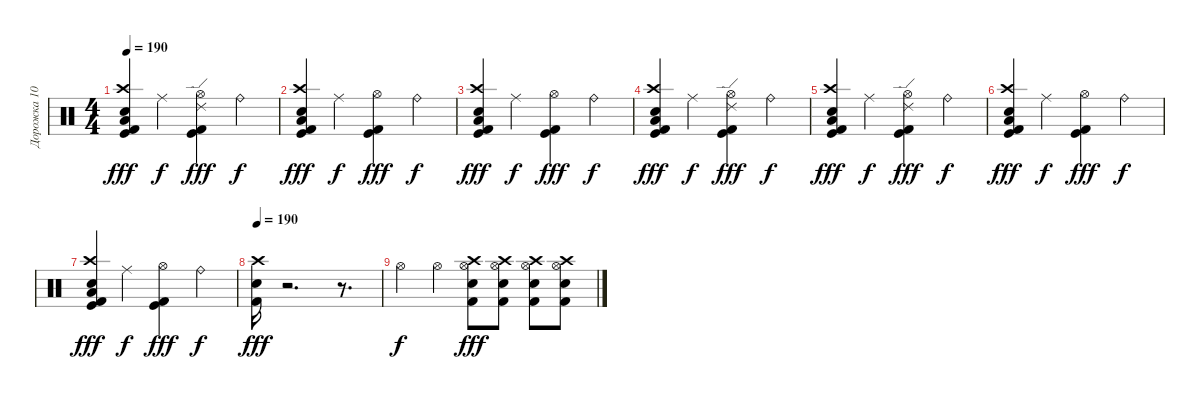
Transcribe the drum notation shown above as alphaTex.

\track ("Дорожка 10" "Дорожка 10") {instrument percussion}
\staff {score}
\articulation defaults
\ts (4 4)
\tempo 190
\clef neutral
\ks c
("Kick (hit)" "Snare (hit) 2" "Kick (hit) 2" "Crash high (hit)" "Low Floor Tom (hit)").4{dy fff} "Ride (middle)".4{dy f} ("Ride (edge) 2" "Kick (hit) 2" "Hi-Hat (open)" "Kick (hit)").4{dy fff} "Ride (bell)".4{dy f} |
("Crash high (hit)" "Kick (hit)" "Kick (hit) 2" "Low Floor Tom (hit)" "Snare (hit) 2").4{dy fff} "Ride (middle)".4{dy f} ("Kick (hit) 2" "Kick (hit)" "Hi-Hat (open)").4{dy fff} "Ride (bell)".4{dy f} |
("Crash high (hit)" "Low Floor Tom (hit)" "Snare (hit) 2" "Kick (hit) 2" "Kick (hit)").4{dy fff} "Ride (middle)".4{dy f} ("Hi-Hat (open)" "Kick (hit)" "Kick (hit) 2").4{dy fff} "Ride (bell)".4{dy f} |
("Low Floor Tom (hit)" "Crash high (hit)" "Kick (hit) 2" "Kick (hit)" "Snare (hit) 2").4{dy fff} "Ride (middle)".4{dy f} ("Kick (hit) 2" "Hi-Hat (open)" "Ride (edge) 2" "Kick (hit)").4{dy fff} "Ride (bell)".4{dy f} |
("Kick (hit) 2" "Low Floor Tom (hit)" "Kick (hit)" "Snare (hit) 2" "Crash high (hit)").4{dy fff} "Ride (middle)".4{dy f} ("Hi-Hat (open)" "Kick (hit)" "Kick (hit) 2" "Ride (edge) 2").4{dy fff} "Ride (bell)".4{dy f} |
("Kick (hit) 2" "Kick (hit)" "Crash high (hit)" "Low Floor Tom (hit)" "Snare (hit) 2").4{dy fff} "Ride (middle)".4{dy f} ("Hi-Hat (open)" "Kick (hit)" "Kick (hit) 2").4{dy fff} "Ride (bell)".4{dy f} |
("Low Floor Tom (hit)" "Kick (hit) 2" "Kick (hit)" "Crash high (hit)" "Snare (hit) 2").4{dy fff} "Ride (middle)".4{dy f} ("Kick (hit) 2" "Kick (hit)" "Hi-Hat (open)").4{dy fff} "Ride (bell)".4{dy f} |
\tempo 190
("Kick (hit) 2" "Snare (hit) 2" "Crash high (hit)").16{dy fff} r.2{d} r.8{d} |
"Hi-Hat (open)".4{dy f} "Hi-Hat (open)".4 ("Hi-Hat (open)" "Kick (hit) 2" "Crash high (hit)" "Snare (hit) 2").8{dy fff} ("Hi-Hat (open)" "Crash high (hit)" "Snare (hit) 2" "Kick (hit) 2").8 ("Kick (hit) 2" "Snare (hit) 2" "Crash high (hit)" "Hi-Hat (open)").8 ("Snare (hit) 2" "Kick (hit) 2" "Hi-Hat (open)" "Crash high (hit)").8
